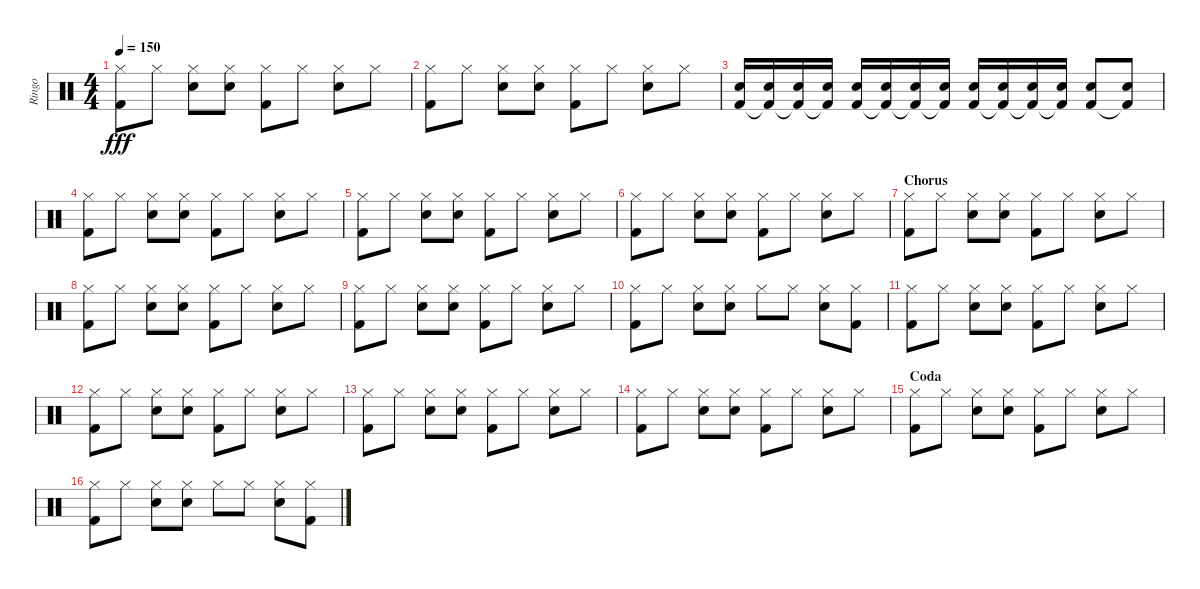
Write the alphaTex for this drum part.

\track ("Ringo" "Ringo") {instrument percussion}
\staff {score}
\articulation defaults
\ts (4 4)
\tempo 150
\clef neutral
\ks c
("Hi-Hat (closed)" "Kick (hit) 2").8{dy fff} "Hi-Hat (closed)".8 ("Hi-Hat (closed)" "Snare (hit) 2").8 ("Hi-Hat (closed)" "Snare (hit) 2").8 ("Hi-Hat (closed)" "Kick (hit) 2").8 "Hi-Hat (closed)".8 ("Hi-Hat (closed)" "Snare (hit) 2").8 "Hi-Hat (closed)".8 |
("Hi-Hat (closed)" "Kick (hit) 2").8 "Hi-Hat (closed)".8 ("Hi-Hat (closed)" "Snare (hit) 2").8 ("Hi-Hat (closed)" "Snare (hit) 2").8 ("Hi-Hat (closed)" "Kick (hit) 2").8 "Hi-Hat (closed)".8 ("Hi-Hat (closed)" "Snare (hit) 2").8 "Hi-Hat (closed)".8 |
("Snare (hit) 2" "Kick (hit) 2").16 ("Snare (hit) 2" "Kick (hit) 2"{t}).16 ("Snare (hit) 2" "Kick (hit) 2"{t}).16 ("Snare (hit) 2" "Kick (hit) 2"{t}).16 ("Snare (hit) 2" "Kick (hit) 2").16 ("Snare (hit) 2" "Kick (hit) 2"{t}).16 ("Snare (hit) 2" "Kick (hit) 2"{t}).16 ("Snare (hit) 2" "Kick (hit) 2"{t}).16 ("Snare (hit) 2" "Kick (hit) 2").16 ("Snare (hit) 2" "Kick (hit) 2"{t}).16 ("Snare (hit) 2" "Kick (hit) 2"{t}).16 ("Snare (hit) 2" "Kick (hit) 2"{t}).16 ("Snare (hit) 2" "Kick (hit) 2").8 ("Snare (hit) 2" "Kick (hit) 2"{t}).8 |
("Hi-Hat (closed)" "Kick (hit) 2").8 "Hi-Hat (closed)".8 ("Hi-Hat (closed)" "Snare (hit) 2").8 ("Hi-Hat (closed)" "Snare (hit) 2").8 ("Hi-Hat (closed)" "Kick (hit) 2").8 "Hi-Hat (closed)".8 ("Hi-Hat (closed)" "Snare (hit) 2").8 "Hi-Hat (closed)".8 |
("Hi-Hat (closed)" "Kick (hit) 2").8 "Hi-Hat (closed)".8 ("Hi-Hat (closed)" "Snare (hit) 2").8 ("Hi-Hat (closed)" "Snare (hit) 2").8 ("Hi-Hat (closed)" "Kick (hit) 2").8 "Hi-Hat (closed)".8 ("Hi-Hat (closed)" "Snare (hit) 2").8 "Hi-Hat (closed)".8 |
("Hi-Hat (closed)" "Kick (hit) 2").8 "Hi-Hat (closed)".8 ("Hi-Hat (closed)" "Snare (hit) 2").8 ("Hi-Hat (closed)" "Snare (hit) 2").8 ("Hi-Hat (closed)" "Kick (hit) 2").8 "Hi-Hat (closed)".8 ("Hi-Hat (closed)" "Snare (hit) 2").8 "Hi-Hat (closed)".8 |
\section ("" "Chorus")
("Hi-Hat (closed)" "Kick (hit) 2").8 "Hi-Hat (closed)".8 ("Hi-Hat (closed)" "Snare (hit) 2").8 ("Hi-Hat (closed)" "Snare (hit) 2").8 ("Hi-Hat (closed)" "Kick (hit) 2").8 "Hi-Hat (closed)".8 ("Hi-Hat (closed)" "Snare (hit) 2").8 "Hi-Hat (closed)".8 |
("Hi-Hat (closed)" "Kick (hit) 2").8 "Hi-Hat (closed)".8 ("Hi-Hat (closed)" "Snare (hit) 2").8 ("Hi-Hat (closed)" "Snare (hit) 2").8 ("Hi-Hat (closed)" "Kick (hit) 2").8 "Hi-Hat (closed)".8 ("Hi-Hat (closed)" "Snare (hit) 2").8 "Hi-Hat (closed)".8 |
("Hi-Hat (closed)" "Kick (hit) 2").8 "Hi-Hat (closed)".8 ("Hi-Hat (closed)" "Snare (hit) 2").8 ("Hi-Hat (closed)" "Snare (hit) 2").8 ("Hi-Hat (closed)" "Kick (hit) 2").8 "Hi-Hat (closed)".8 ("Hi-Hat (closed)" "Snare (hit) 2").8 "Hi-Hat (closed)".8 |
("Hi-Hat (closed)" "Kick (hit) 2").8 "Hi-Hat (closed)".8 ("Hi-Hat (closed)" "Snare (hit) 2").8 ("Hi-Hat (closed)" "Snare (hit) 2").8 "Hi-Hat (closed)".8 "Hi-Hat (closed)".8 ("Hi-Hat (closed)" "Snare (hit) 2").8 ("Hi-Hat (closed)" "Kick (hit) 2").8 |
("Hi-Hat (closed)" "Kick (hit) 2").8 "Hi-Hat (closed)".8 ("Hi-Hat (closed)" "Snare (hit) 2").8 ("Hi-Hat (closed)" "Snare (hit) 2").8 ("Hi-Hat (closed)" "Kick (hit) 2").8 "Hi-Hat (closed)".8 ("Hi-Hat (closed)" "Snare (hit) 2").8 "Hi-Hat (closed)".8 |
("Hi-Hat (closed)" "Kick (hit) 2").8 "Hi-Hat (closed)".8 ("Hi-Hat (closed)" "Snare (hit) 2").8 ("Hi-Hat (closed)" "Snare (hit) 2").8 ("Hi-Hat (closed)" "Kick (hit) 2").8 "Hi-Hat (closed)".8 ("Hi-Hat (closed)" "Snare (hit) 2").8 "Hi-Hat (closed)".8 |
("Hi-Hat (closed)" "Kick (hit) 2").8 "Hi-Hat (closed)".8 ("Hi-Hat (closed)" "Snare (hit) 2").8 ("Hi-Hat (closed)" "Snare (hit) 2").8 ("Hi-Hat (closed)" "Kick (hit) 2").8 "Hi-Hat (closed)".8 ("Hi-Hat (closed)" "Snare (hit) 2").8 "Hi-Hat (closed)".8 |
("Hi-Hat (closed)" "Kick (hit) 2").8 "Hi-Hat (closed)".8 ("Hi-Hat (closed)" "Snare (hit) 2").8 ("Hi-Hat (closed)" "Snare (hit) 2").8 ("Hi-Hat (closed)" "Kick (hit) 2").8 "Hi-Hat (closed)".8 ("Hi-Hat (closed)" "Snare (hit) 2").8 "Hi-Hat (closed)".8 |
\section ("" "Coda")
("Hi-Hat (closed)" "Kick (hit) 2").8 "Hi-Hat (closed)".8 ("Hi-Hat (closed)" "Snare (hit) 2").8 ("Hi-Hat (closed)" "Snare (hit) 2").8 ("Hi-Hat (closed)" "Kick (hit) 2").8 "Hi-Hat (closed)".8 ("Hi-Hat (closed)" "Snare (hit) 2").8 "Hi-Hat (closed)".8 |
("Hi-Hat (closed)" "Kick (hit) 2").8 "Hi-Hat (closed)".8 ("Hi-Hat (closed)" "Snare (hit) 2").8 ("Hi-Hat (closed)" "Snare (hit) 2").8 "Hi-Hat (closed)".8 "Hi-Hat (closed)".8 ("Hi-Hat (closed)" "Snare (hit) 2").8 ("Hi-Hat (closed)" "Kick (hit) 2").8
